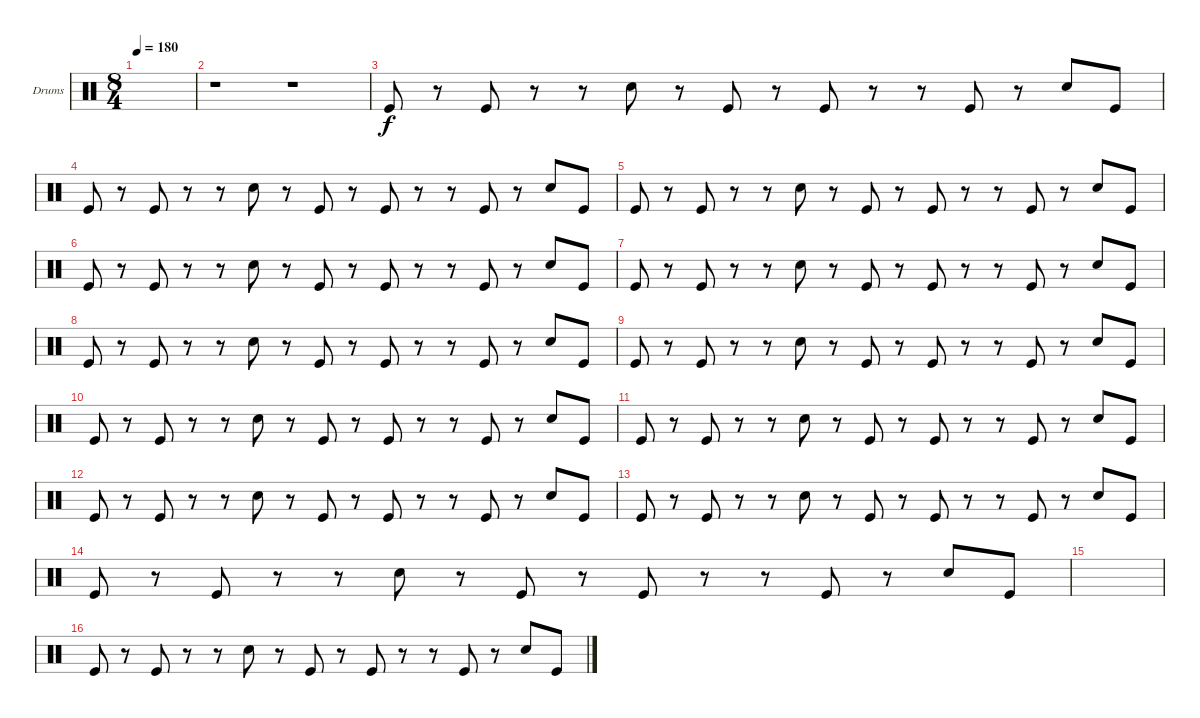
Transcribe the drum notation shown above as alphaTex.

\defaultSystemsLayout 4
\bracketExtendMode groupsimilarinstruments
\firstSystemTrackNameOrientation horizontal
\otherSystemsTrackNameOrientation horizontal
\track ("Drumkit" "Drums") {instrument percussion}
\staff {score}
\articulation defaults
\ts (8 4)
\tempo 180
\clef neutral
\ks c
|
r.1 r.1 |
"Kick (hit)".8 r.8 "Kick (hit)".8 r.8 r.8 "Snare (hit) 2".8 r.8 "Kick (hit)".8 r.8 "Kick (hit)".8 r.8 r.8 "Kick (hit)".8 r.8 "Snare (hit) 2".8 "Kick (hit)".8 |
"Kick (hit)".8 r.8 "Kick (hit)".8 r.8 r.8 "Snare (hit) 2".8 r.8 "Kick (hit)".8 r.8 "Kick (hit)".8 r.8 r.8 "Kick (hit)".8 r.8 "Snare (hit) 2".8 "Kick (hit)".8 |
"Kick (hit)".8 r.8 "Kick (hit)".8 r.8 r.8 "Snare (hit) 2".8 r.8 "Kick (hit)".8 r.8 "Kick (hit)".8 r.8 r.8 "Kick (hit)".8 r.8 "Snare (hit) 2".8 "Kick (hit)".8 |
"Kick (hit)".8 r.8 "Kick (hit)".8 r.8 r.8 "Snare (hit) 2".8 r.8 "Kick (hit)".8 r.8 "Kick (hit)".8 r.8 r.8 "Kick (hit)".8 r.8 "Snare (hit) 2".8 "Kick (hit)".8 |
"Kick (hit)".8 r.8 "Kick (hit)".8 r.8 r.8 "Snare (hit) 2".8 r.8 "Kick (hit)".8 r.8 "Kick (hit)".8 r.8 r.8 "Kick (hit)".8 r.8 "Snare (hit) 2".8 "Kick (hit)".8 |
"Kick (hit)".8 r.8 "Kick (hit)".8 r.8 r.8 "Snare (hit) 2".8 r.8 "Kick (hit)".8 r.8 "Kick (hit)".8 r.8 r.8 "Kick (hit)".8 r.8 "Snare (hit) 2".8 "Kick (hit)".8 |
"Kick (hit)".8 r.8 "Kick (hit)".8 r.8 r.8 "Snare (hit) 2".8 r.8 "Kick (hit)".8 r.8 "Kick (hit)".8 r.8 r.8 "Kick (hit)".8 r.8 "Snare (hit) 2".8 "Kick (hit)".8 |
"Kick (hit)".8 r.8 "Kick (hit)".8 r.8 r.8 "Snare (hit) 2".8 r.8 "Kick (hit)".8 r.8 "Kick (hit)".8 r.8 r.8 "Kick (hit)".8 r.8 "Snare (hit) 2".8 "Kick (hit)".8 |
"Kick (hit)".8 r.8 "Kick (hit)".8 r.8 r.8 "Snare (hit) 2".8 r.8 "Kick (hit)".8 r.8 "Kick (hit)".8 r.8 r.8 "Kick (hit)".8 r.8 "Snare (hit) 2".8 "Kick (hit)".8 |
"Kick (hit)".8 r.8 "Kick (hit)".8 r.8 r.8 "Snare (hit) 2".8 r.8 "Kick (hit)".8 r.8 "Kick (hit)".8 r.8 r.8 "Kick (hit)".8 r.8 "Snare (hit) 2".8 "Kick (hit)".8 |
"Kick (hit)".8 r.8 "Kick (hit)".8 r.8 r.8 "Snare (hit) 2".8 r.8 "Kick (hit)".8 r.8 "Kick (hit)".8 r.8 r.8 "Kick (hit)".8 r.8 "Snare (hit) 2".8 "Kick (hit)".8 |
"Kick (hit)".8 r.8 "Kick (hit)".8 r.8 r.8 "Snare (hit) 2".8 r.8 "Kick (hit)".8 r.8 "Kick (hit)".8 r.8 r.8 "Kick (hit)".8 r.8 "Snare (hit) 2".8 "Kick (hit)".8 |
|
"Kick (hit)".8 r.8 "Kick (hit)".8 r.8 r.8 "Snare (hit) 2".8 r.8 "Kick (hit)".8 r.8 "Kick (hit)".8 r.8 r.8 "Kick (hit)".8 r.8 "Snare (hit) 2".8 "Kick (hit)".8
